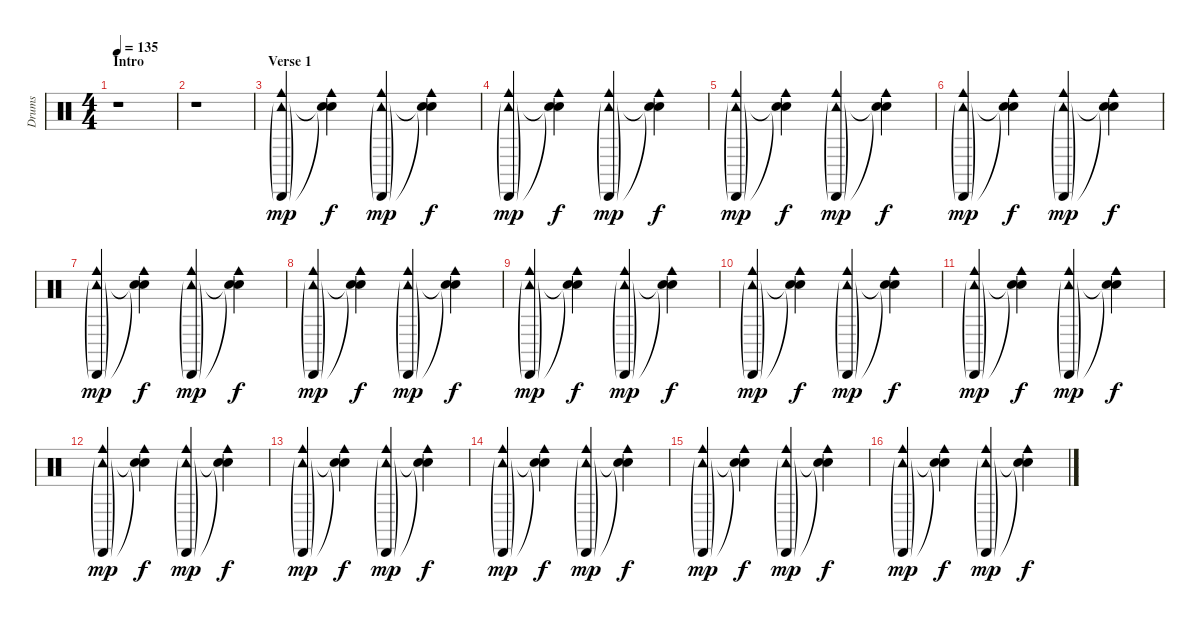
\track ("Drums" "Drums") {instrument percussion}
\staff {score}
\articulation defaults
\ts (4 4)
\section ("" "Intro")
\tempo 135
\clef neutral
\ks c
r.1{dy mp} |
r.1 |
\section ("" "Verse 1")
("Cowbell medium (hit)" "Tambourine (hit)"{g} "Cabasa (hit)"{g}).4 ("Cowbell medium (hit)" "Snare (hit)"{t} "Snare (hit)"{t}).4{dy f} ("Cowbell medium (hit)" "Tambourine (hit)"{g} "Cabasa (hit)"{g}).4{dy mp} ("Cowbell medium (hit)" "Snare (hit)"{t} "Snare (hit)"{t}).4{dy f} |
("Cowbell medium (hit)" "Tambourine (hit)"{g} "Cabasa (hit)"{g}).4{dy mp} ("Cowbell medium (hit)" "Snare (hit)"{t} "Snare (hit)"{t}).4{dy f} ("Cowbell medium (hit)" "Tambourine (hit)"{g} "Cabasa (hit)"{g}).4{dy mp} ("Cowbell medium (hit)" "Snare (hit)"{t} "Snare (hit)"{t}).4{dy f} |
("Cowbell medium (hit)" "Tambourine (hit)"{g} "Cabasa (hit)"{g}).4{dy mp} ("Cowbell medium (hit)" "Snare (hit)"{t} "Snare (hit)"{t}).4{dy f} ("Cowbell medium (hit)" "Tambourine (hit)"{g} "Cabasa (hit)"{g}).4{dy mp} ("Cowbell medium (hit)" "Snare (hit)"{t} "Snare (hit)"{t}).4{dy f} |
("Cowbell medium (hit)" "Tambourine (hit)"{g} "Cabasa (hit)"{g}).4{dy mp} ("Cowbell medium (hit)" "Snare (hit)"{t} "Snare (hit)"{t}).4{dy f} ("Cowbell medium (hit)" "Tambourine (hit)"{g} "Cabasa (hit)"{g}).4{dy mp} ("Cowbell medium (hit)" "Snare (hit)"{t} "Snare (hit)"{t}).4{dy f} |
("Cowbell medium (hit)" "Tambourine (hit)"{g} "Cabasa (hit)"{g}).4{dy mp} ("Cowbell medium (hit)" "Snare (hit)"{t} "Snare (hit)"{t}).4{dy f} ("Cowbell medium (hit)" "Tambourine (hit)"{g} "Cabasa (hit)"{g}).4{dy mp} ("Cowbell medium (hit)" "Snare (hit)"{t} "Snare (hit)"{t}).4{dy f} |
("Cowbell medium (hit)" "Tambourine (hit)"{g} "Cabasa (hit)"{g}).4{dy mp} ("Cowbell medium (hit)" "Snare (hit)"{t} "Snare (hit)"{t}).4{dy f} ("Cowbell medium (hit)" "Tambourine (hit)"{g} "Cabasa (hit)"{g}).4{dy mp} ("Cowbell medium (hit)" "Snare (hit)"{t} "Snare (hit)"{t}).4{dy f} |
("Cowbell medium (hit)" "Tambourine (hit)"{g} "Cabasa (hit)"{g}).4{dy mp} ("Cowbell medium (hit)" "Snare (hit)"{t} "Snare (hit)"{t}).4{dy f} ("Cowbell medium (hit)" "Tambourine (hit)"{g} "Cabasa (hit)"{g}).4{dy mp} ("Cowbell medium (hit)" "Snare (hit)"{t} "Snare (hit)"{t}).4{dy f} |
("Cowbell medium (hit)" "Tambourine (hit)"{g} "Cabasa (hit)"{g}).4{dy mp} ("Cowbell medium (hit)" "Snare (hit)"{t} "Snare (hit)"{t}).4{dy f} ("Cowbell medium (hit)" "Tambourine (hit)"{g} "Cabasa (hit)"{g}).4{dy mp} ("Cowbell medium (hit)" "Snare (hit)"{t} "Snare (hit)"{t}).4{dy f} |
("Cowbell medium (hit)" "Tambourine (hit)"{g} "Cabasa (hit)"{g}).4{dy mp} ("Cowbell medium (hit)" "Snare (hit)"{t} "Snare (hit)"{t}).4{dy f} ("Cowbell medium (hit)" "Tambourine (hit)"{g} "Cabasa (hit)"{g}).4{dy mp} ("Cowbell medium (hit)" "Snare (hit)"{t} "Snare (hit)"{t}).4{dy f} |
("Cowbell medium (hit)" "Tambourine (hit)"{g} "Cabasa (hit)"{g}).4{dy mp} ("Cowbell medium (hit)" "Snare (hit)"{t} "Snare (hit)"{t}).4{dy f} ("Cowbell medium (hit)" "Tambourine (hit)"{g} "Cabasa (hit)"{g}).4{dy mp} ("Cowbell medium (hit)" "Snare (hit)"{t} "Snare (hit)"{t}).4{dy f} |
("Cowbell medium (hit)" "Tambourine (hit)"{g} "Cabasa (hit)"{g}).4{dy mp} ("Cowbell medium (hit)" "Snare (hit)"{t} "Snare (hit)"{t}).4{dy f} ("Cowbell medium (hit)" "Tambourine (hit)"{g} "Cabasa (hit)"{g}).4{dy mp} ("Cowbell medium (hit)" "Snare (hit)"{t} "Snare (hit)"{t}).4{dy f} |
("Cowbell medium (hit)" "Tambourine (hit)"{g} "Cabasa (hit)"{g}).4{dy mp} ("Cowbell medium (hit)" "Snare (hit)"{t} "Snare (hit)"{t}).4{dy f} ("Cowbell medium (hit)" "Tambourine (hit)"{g} "Cabasa (hit)"{g}).4{dy mp} ("Cowbell medium (hit)" "Snare (hit)"{t} "Snare (hit)"{t}).4{dy f} |
("Cowbell medium (hit)" "Tambourine (hit)"{g} "Cabasa (hit)"{g}).4{dy mp} ("Cowbell medium (hit)" "Snare (hit)"{t} "Snare (hit)"{t}).4{dy f} ("Cowbell medium (hit)" "Tambourine (hit)"{g} "Cabasa (hit)"{g}).4{dy mp} ("Cowbell medium (hit)" "Snare (hit)"{t} "Snare (hit)"{t}).4{dy f} |
("Cowbell medium (hit)" "Tambourine (hit)"{g} "Cabasa (hit)"{g}).4{dy mp} ("Cowbell medium (hit)" "Snare (hit)"{t} "Snare (hit)"{t}).4{dy f} ("Cowbell medium (hit)" "Tambourine (hit)"{g} "Cabasa (hit)"{g}).4{dy mp} ("Cowbell medium (hit)" "Snare (hit)"{t} "Snare (hit)"{t}).4{dy f}
